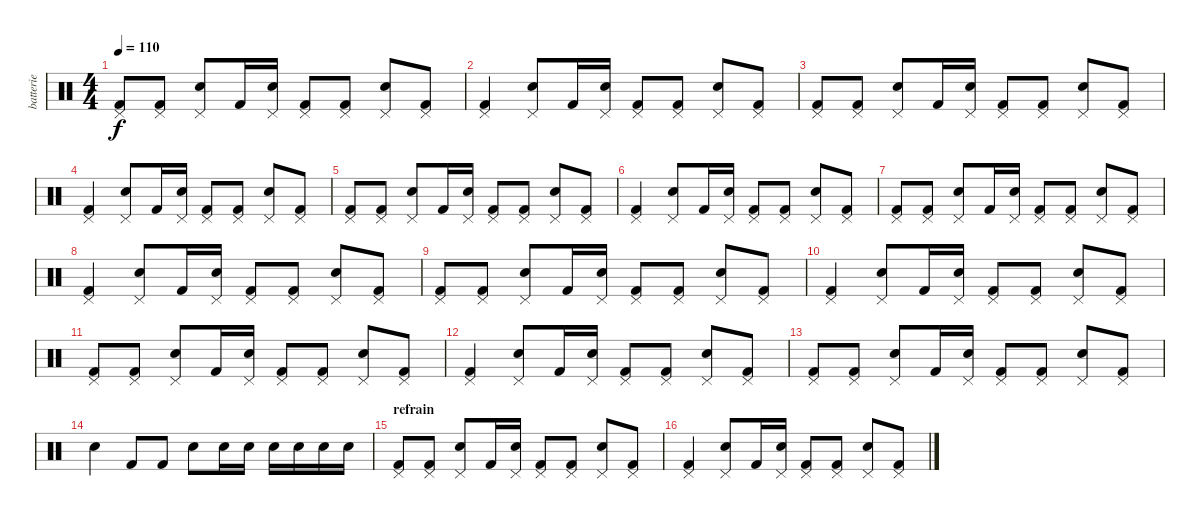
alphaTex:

\track ("batterie" "batterie") {instrument percussion}
\staff {score}
\articulation defaults
\ts (4 4)
\tempo 110
\clef neutral
\ks c
("Pedal Hi-Hat (hit)" "Kick (hit) 2").8{dy f} ("Pedal Hi-Hat (hit)" "Kick (hit) 2").8 ("Pedal Hi-Hat (hit)" "Snare (hit) 2").8 "Kick (hit) 2".16 ("Pedal Hi-Hat (hit)" "Snare (hit) 2").16 ("Pedal Hi-Hat (hit)" "Kick (hit) 2").8 ("Pedal Hi-Hat (hit)" "Kick (hit) 2").8 ("Pedal Hi-Hat (hit)" "Snare (hit) 2").8 ("Pedal Hi-Hat (hit)" "Kick (hit) 2").8 |
("Pedal Hi-Hat (hit)" "Kick (hit) 2").4 ("Pedal Hi-Hat (hit)" "Snare (hit) 2").8 "Kick (hit) 2".16 ("Pedal Hi-Hat (hit)" "Snare (hit) 2").16 ("Pedal Hi-Hat (hit)" "Kick (hit) 2").8 ("Pedal Hi-Hat (hit)" "Kick (hit) 2").8 ("Pedal Hi-Hat (hit)" "Snare (hit) 2").8 ("Pedal Hi-Hat (hit)" "Kick (hit) 2").8 |
("Pedal Hi-Hat (hit)" "Kick (hit) 2").8 ("Pedal Hi-Hat (hit)" "Kick (hit) 2").8 ("Pedal Hi-Hat (hit)" "Snare (hit) 2").8 "Kick (hit) 2".16 ("Pedal Hi-Hat (hit)" "Snare (hit) 2").16 ("Pedal Hi-Hat (hit)" "Kick (hit) 2").8 ("Pedal Hi-Hat (hit)" "Kick (hit) 2").8 ("Pedal Hi-Hat (hit)" "Snare (hit) 2").8 ("Pedal Hi-Hat (hit)" "Kick (hit) 2").8 |
("Pedal Hi-Hat (hit)" "Kick (hit) 2").4 ("Pedal Hi-Hat (hit)" "Snare (hit) 2").8 "Kick (hit) 2".16 ("Pedal Hi-Hat (hit)" "Snare (hit) 2").16 ("Pedal Hi-Hat (hit)" "Kick (hit) 2").8 ("Pedal Hi-Hat (hit)" "Kick (hit) 2").8 ("Pedal Hi-Hat (hit)" "Snare (hit) 2").8 ("Pedal Hi-Hat (hit)" "Kick (hit) 2").8 |
("Pedal Hi-Hat (hit)" "Kick (hit) 2").8 ("Pedal Hi-Hat (hit)" "Kick (hit) 2").8 ("Pedal Hi-Hat (hit)" "Snare (hit) 2").8 "Kick (hit) 2".16 ("Pedal Hi-Hat (hit)" "Snare (hit) 2").16 ("Pedal Hi-Hat (hit)" "Kick (hit) 2").8 ("Pedal Hi-Hat (hit)" "Kick (hit) 2").8 ("Pedal Hi-Hat (hit)" "Snare (hit) 2").8 ("Pedal Hi-Hat (hit)" "Kick (hit) 2").8 |
("Pedal Hi-Hat (hit)" "Kick (hit) 2").4 ("Pedal Hi-Hat (hit)" "Snare (hit) 2").8 "Kick (hit) 2".16 ("Pedal Hi-Hat (hit)" "Snare (hit) 2").16 ("Pedal Hi-Hat (hit)" "Kick (hit) 2").8 ("Pedal Hi-Hat (hit)" "Kick (hit) 2").8 ("Pedal Hi-Hat (hit)" "Snare (hit) 2").8 ("Pedal Hi-Hat (hit)" "Kick (hit) 2").8 |
("Pedal Hi-Hat (hit)" "Kick (hit) 2").8 ("Pedal Hi-Hat (hit)" "Kick (hit) 2").8 ("Pedal Hi-Hat (hit)" "Snare (hit) 2").8 "Kick (hit) 2".16 ("Pedal Hi-Hat (hit)" "Snare (hit) 2").16 ("Pedal Hi-Hat (hit)" "Kick (hit) 2").8 ("Pedal Hi-Hat (hit)" "Kick (hit) 2").8 ("Pedal Hi-Hat (hit)" "Snare (hit) 2").8 ("Pedal Hi-Hat (hit)" "Kick (hit) 2").8 |
("Pedal Hi-Hat (hit)" "Kick (hit) 2").4 ("Pedal Hi-Hat (hit)" "Snare (hit) 2").8 "Kick (hit) 2".16 ("Pedal Hi-Hat (hit)" "Snare (hit) 2").16 ("Pedal Hi-Hat (hit)" "Kick (hit) 2").8 ("Pedal Hi-Hat (hit)" "Kick (hit) 2").8 ("Pedal Hi-Hat (hit)" "Snare (hit) 2").8 ("Pedal Hi-Hat (hit)" "Kick (hit) 2").8 |
("Pedal Hi-Hat (hit)" "Kick (hit) 2").8 ("Pedal Hi-Hat (hit)" "Kick (hit) 2").8 ("Pedal Hi-Hat (hit)" "Snare (hit) 2").8 "Kick (hit) 2".16 ("Pedal Hi-Hat (hit)" "Snare (hit) 2").16 ("Pedal Hi-Hat (hit)" "Kick (hit) 2").8 ("Pedal Hi-Hat (hit)" "Kick (hit) 2").8 ("Pedal Hi-Hat (hit)" "Snare (hit) 2").8 ("Pedal Hi-Hat (hit)" "Kick (hit) 2").8 |
("Pedal Hi-Hat (hit)" "Kick (hit) 2").4 ("Pedal Hi-Hat (hit)" "Snare (hit) 2").8 "Kick (hit) 2".16 ("Pedal Hi-Hat (hit)" "Snare (hit) 2").16 ("Pedal Hi-Hat (hit)" "Kick (hit) 2").8 ("Pedal Hi-Hat (hit)" "Kick (hit) 2").8 ("Pedal Hi-Hat (hit)" "Snare (hit) 2").8 ("Pedal Hi-Hat (hit)" "Kick (hit) 2").8 |
("Pedal Hi-Hat (hit)" "Kick (hit) 2").8 ("Pedal Hi-Hat (hit)" "Kick (hit) 2").8 ("Pedal Hi-Hat (hit)" "Snare (hit) 2").8 "Kick (hit) 2".16 ("Pedal Hi-Hat (hit)" "Snare (hit) 2").16 ("Pedal Hi-Hat (hit)" "Kick (hit) 2").8 ("Pedal Hi-Hat (hit)" "Kick (hit) 2").8 ("Pedal Hi-Hat (hit)" "Snare (hit) 2").8 ("Pedal Hi-Hat (hit)" "Kick (hit) 2").8 |
("Pedal Hi-Hat (hit)" "Kick (hit) 2").4 ("Pedal Hi-Hat (hit)" "Snare (hit) 2").8 "Kick (hit) 2".16 ("Pedal Hi-Hat (hit)" "Snare (hit) 2").16 ("Pedal Hi-Hat (hit)" "Kick (hit) 2").8 ("Pedal Hi-Hat (hit)" "Kick (hit) 2").8 ("Pedal Hi-Hat (hit)" "Snare (hit) 2").8 ("Pedal Hi-Hat (hit)" "Kick (hit) 2").8 |
("Pedal Hi-Hat (hit)" "Kick (hit) 2").8 ("Pedal Hi-Hat (hit)" "Kick (hit) 2").8 ("Pedal Hi-Hat (hit)" "Snare (hit) 2").8 "Kick (hit) 2".16 ("Pedal Hi-Hat (hit)" "Snare (hit) 2").16 ("Pedal Hi-Hat (hit)" "Kick (hit) 2").8 ("Pedal Hi-Hat (hit)" "Kick (hit) 2").8 ("Pedal Hi-Hat (hit)" "Snare (hit) 2").8 ("Pedal Hi-Hat (hit)" "Kick (hit) 2").8 |
"Snare (hit) 2".4 "Kick (hit) 2".8 "Kick (hit) 2".8 "Snare (hit) 2".8 "Snare (hit) 2".16 "Snare (hit) 2".16 "Snare (hit) 2".16 "Snare (hit) 2".16 "Snare (hit) 2".16 "Snare (hit) 2".16 |
\section ("" "refrain")
("Pedal Hi-Hat (hit)" "Kick (hit) 2").8 ("Pedal Hi-Hat (hit)" "Kick (hit) 2").8 ("Pedal Hi-Hat (hit)" "Snare (hit) 2").8 "Kick (hit) 2".16 ("Pedal Hi-Hat (hit)" "Snare (hit) 2").16 ("Pedal Hi-Hat (hit)" "Kick (hit) 2").8 ("Pedal Hi-Hat (hit)" "Kick (hit) 2").8 ("Pedal Hi-Hat (hit)" "Snare (hit) 2").8 ("Pedal Hi-Hat (hit)" "Kick (hit) 2").8 |
("Pedal Hi-Hat (hit)" "Kick (hit) 2").4 ("Pedal Hi-Hat (hit)" "Snare (hit) 2").8 "Kick (hit) 2".16 ("Pedal Hi-Hat (hit)" "Snare (hit) 2").16 ("Pedal Hi-Hat (hit)" "Kick (hit) 2").8 ("Pedal Hi-Hat (hit)" "Kick (hit) 2").8 ("Pedal Hi-Hat (hit)" "Snare (hit) 2").8 ("Pedal Hi-Hat (hit)" "Kick (hit) 2").8
